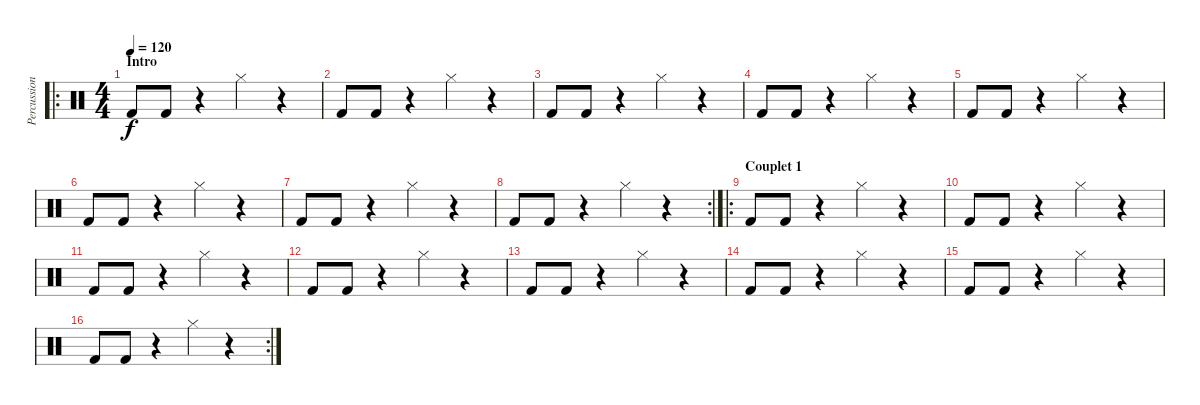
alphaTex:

\track ("Percussions" "Percussion") {instrument percussion}
\staff {score}
\articulation defaults
\ro
\ts (4 4)
\section ("" "Intro")
\tempo 120
\clef neutral
\ks c "Kick (hit) 2".8{dy f} "Kick (hit) 2".8
r.4 "Hi-Hat (closed)".4 r.4 |
"Kick (hit) 2".8 "Kick (hit) 2".8 r.4 "Hi-Hat (closed)".4 r.4 |
"Kick (hit) 2".8 "Kick (hit) 2".8 r.4 "Hi-Hat (closed)".4 r.4 |
"Kick (hit) 2".8 "Kick (hit) 2".8 r.4 "Hi-Hat (closed)".4 r.4 |
"Kick (hit) 2".8 "Kick (hit) 2".8 r.4 "Hi-Hat (closed)".4 r.4 |
"Kick (hit) 2".8 "Kick (hit) 2".8 r.4 "Hi-Hat (closed)".4 r.4 |
"Kick (hit) 2".8 "Kick (hit) 2".8 r.4 "Hi-Hat (closed)".4 r.4 |
\rc 2 "Kick (hit) 2".8 "Kick (hit) 2".8
r.4 "Hi-Hat (closed)".4 r.4 |
\ro
\section ("" "Couplet 1")
"Kick (hit) 2".8 "Kick (hit) 2".8 r.4 "Hi-Hat (closed)".4 r.4 |
"Kick (hit) 2".8 "Kick (hit) 2".8 r.4 "Hi-Hat (closed)".4 r.4 |
"Kick (hit) 2".8 "Kick (hit) 2".8 r.4 "Hi-Hat (closed)".4 r.4 |
"Kick (hit) 2".8 "Kick (hit) 2".8 r.4 "Hi-Hat (closed)".4 r.4 |
"Kick (hit) 2".8 "Kick (hit) 2".8 r.4 "Hi-Hat (closed)".4 r.4 |
"Kick (hit) 2".8 "Kick (hit) 2".8 r.4 "Hi-Hat (closed)".4 r.4 |
"Kick (hit) 2".8 "Kick (hit) 2".8 r.4 "Hi-Hat (closed)".4 r.4 |
\rc 2 "Kick (hit) 2".8 "Kick (hit) 2".8
r.4 "Hi-Hat (closed)".4 r.4
